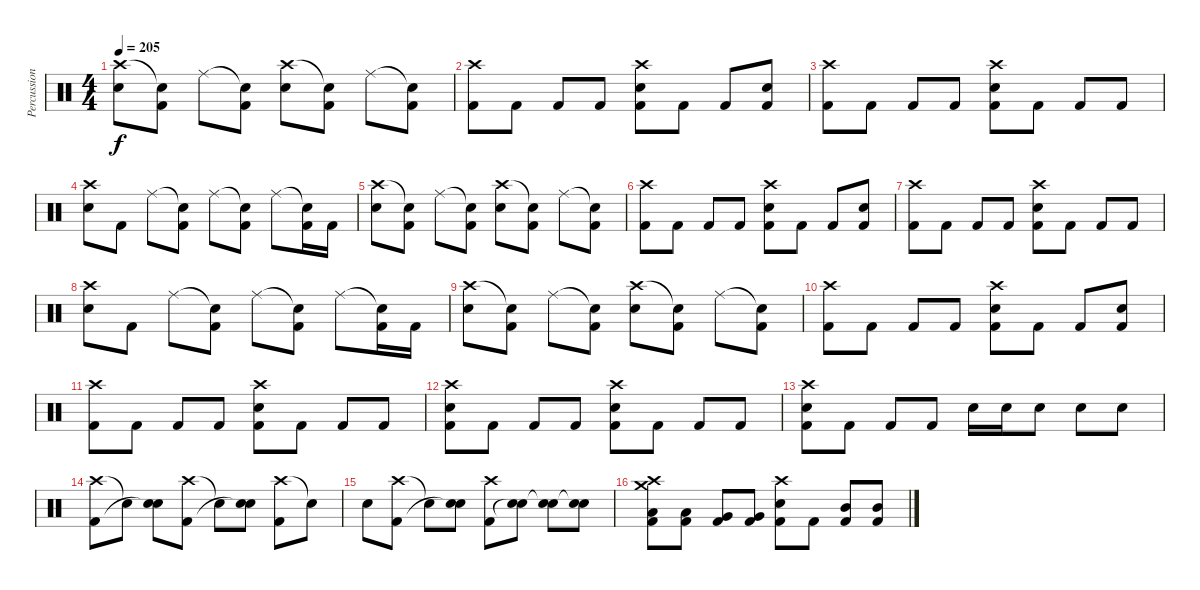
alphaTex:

\track ("Percussions" "Percussion") {instrument percussion}
\staff {score}
\articulation defaults
\ts (4 4)
\tempo 205
\clef neutral
\ks c
("Crash high (hit)" "Snare (hit) 2").8{dy f} ("Snare (hit)"{t} "Kick (hit) 2").8 "Ride (middle)".8 ("Snare (hit)"{t} "Kick (hit) 2").8 ("Crash high (hit)" "Snare (hit) 2").8 ("Snare (hit)"{t} "Kick (hit) 2").8 "Ride (middle)".8 ("Snare (hit)"{t} "Kick (hit) 2").8 |
("Crash high (hit)" "Kick (hit) 2").8 "Kick (hit) 2".8 "Kick (hit) 2".8 "Kick (hit) 2".8 ("Crash high (hit)" "Snare (hit) 2" "Kick (hit) 2").8 "Kick (hit) 2".8 "Kick (hit) 2".8 ("Snare (hit) 2" "Kick (hit) 2").8 |
("Crash high (hit)" "Kick (hit) 2").8 "Kick (hit) 2".8 "Kick (hit) 2".8 "Kick (hit) 2".8 ("Crash high (hit)" "Snare (hit) 2" "Kick (hit) 2").8 "Kick (hit) 2".8 "Kick (hit) 2".8 "Kick (hit) 2".8 |
("Crash high (hit)" "Snare (hit) 2").8 "Kick (hit) 2".8 "Ride (middle)".8 ("Snare (hit)"{t} "Kick (hit) 2").8 "Ride (middle)".8 ("Snare (hit)"{t} "Kick (hit) 2").8 "Ride (middle)".8 ("Snare (hit)"{t} "Kick (hit) 2").16 "Kick (hit) 2".16 |
("Crash high (hit)" "Snare (hit) 2").8 ("Snare (hit)"{t} "Kick (hit) 2").8 "Ride (middle)".8 ("Snare (hit)"{t} "Kick (hit) 2").8 ("Crash high (hit)" "Snare (hit) 2").8 ("Snare (hit)"{t} "Kick (hit) 2").8 "Ride (middle)".8 ("Snare (hit)"{t} "Kick (hit) 2").8 |
("Crash high (hit)" "Kick (hit) 2").8 "Kick (hit) 2".8 "Kick (hit) 2".8 "Kick (hit) 2".8 ("Crash high (hit)" "Snare (hit) 2" "Kick (hit) 2").8 "Kick (hit) 2".8 "Kick (hit) 2".8 ("Snare (hit) 2" "Kick (hit) 2").8 |
("Crash high (hit)" "Kick (hit) 2").8 "Kick (hit) 2".8 "Kick (hit) 2".8 "Kick (hit) 2".8 ("Crash high (hit)" "Snare (hit) 2" "Kick (hit) 2").8 "Kick (hit) 2".8 "Kick (hit) 2".8 "Kick (hit) 2".8 |
("Crash high (hit)" "Snare (hit) 2").8 "Kick (hit) 2".8 "Ride (middle)".8 ("Snare (hit)"{t} "Kick (hit) 2").8 "Ride (middle)".8 ("Snare (hit)"{t} "Kick (hit) 2").8 "Ride (middle)".8 ("Snare (hit)"{t} "Kick (hit) 2").16 "Kick (hit) 2".16 |
("Crash high (hit)" "Snare (hit) 2").8 ("Snare (hit)"{t} "Kick (hit) 2").8 "Ride (middle)".8 ("Snare (hit)"{t} "Kick (hit) 2").8 ("Crash high (hit)" "Snare (hit) 2").8 ("Snare (hit)"{t} "Kick (hit) 2").8 "Ride (middle)".8 ("Snare (hit)"{t} "Kick (hit) 2").8 |
("Crash high (hit)" "Kick (hit) 2").8 "Kick (hit) 2".8 "Kick (hit) 2".8 "Kick (hit) 2".8 ("Crash high (hit)" "Snare (hit) 2" "Kick (hit) 2").8 "Kick (hit) 2".8 "Kick (hit) 2".8 ("Snare (hit) 2" "Kick (hit) 2").8 |
("Crash high (hit)" "Kick (hit) 2").8 "Kick (hit) 2".8 "Kick (hit) 2".8 "Kick (hit) 2".8 ("Crash high (hit)" "Snare (hit) 2" "Kick (hit) 2").8 "Kick (hit) 2".8 "Kick (hit) 2".8 "Kick (hit) 2".8 |
("Crash high (hit)" "Snare (hit) 2" "Kick (hit) 2").8 "Kick (hit) 2".8 "Kick (hit) 2".8 "Kick (hit) 2".8 ("Crash high (hit)" "Snare (hit) 2" "Kick (hit) 2").8 "Kick (hit) 2".8 "Kick (hit) 2".8 "Kick (hit) 2".8 |
("Crash high (hit)" "Snare (hit) 2" "Kick (hit) 2").8 "Kick (hit) 2".8 "Kick (hit) 2".8 "Kick (hit) 2".8 "Snare (hit) 2".16 "Snare (hit) 2".16 "Snare (hit) 2".8 "Snare (hit) 2".8 "Snare (hit) 2".8 |
("Crash high (hit)" "Kick (hit) 2").8 "Snare (hit)"{t}.8 ("Snare (hit) 2" "Snare (hit)"{t}).8 ("Crash high (hit)" "Kick (hit) 2").8 "Snare (hit)"{t}.8 ("Snare (hit) 2" "Snare (hit)"{t}).8 ("Crash high (hit)" "Kick (hit) 2").8 "Snare (hit)"{t}.8 |
"Snare (hit) 2".8 ("Crash high (hit)" "Kick (hit) 2").8 "Snare (hit)"{t}.8 ("Snare (hit) 2" "Snare (hit)"{t}).8 ("Crash high (hit)" "Kick (hit) 2").8 ("Snare (hit) 2" "Snare (hit)"{t}).8 ("Snare (hit) 2" "Snare (hit)"{t}).8 ("Snare (hit) 2" "Snare (hit)"{t}).8 |
("Crash medium (hit)" "Crash high (hit)" "Low Tom (hit)" "Kick (hit) 2").8 ("Low Tom (hit)" "Kick (hit) 2").8 ("Very Low Tom (hit)" "Kick (hit) 2").8 ("Very Low Tom (hit)" "Kick (hit) 2").8 ("Crash high (hit)" "Snare (hit) 2" "Kick (hit) 2").8 "Kick (hit) 2".8 ("Mid Tom (hit)" "Kick (hit) 2").8 ("Mid Tom (hit)" "Kick (hit) 2").8
